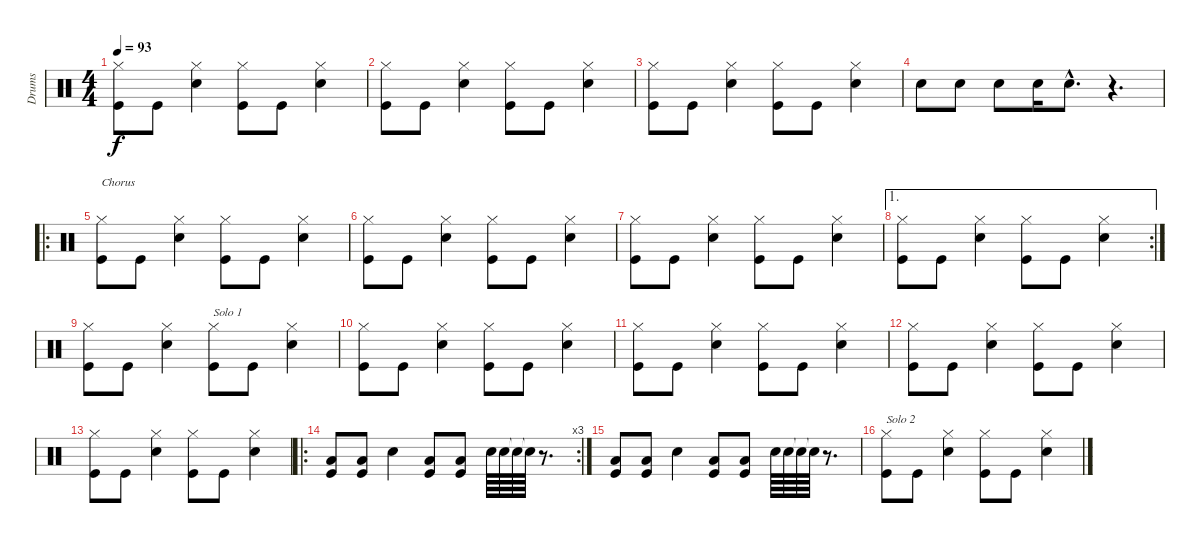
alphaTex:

\track ("Drums" "Drums") {instrument percussion}
\staff {score}
\articulation defaults
\ts (4 4)
\tempo 93
\clef neutral
\ks c
("Hi-Hat (closed)" "Kick (hit)").8{dy f} "Kick (hit)".8 ("Hi-Hat (closed)" "Snare (hit) 2").4 ("Hi-Hat (closed)" "Kick (hit)").8 "Kick (hit)".8 ("Hi-Hat (closed)" "Snare (hit) 2").4 |
("Hi-Hat (closed)" "Kick (hit)").8 "Kick (hit)".8 ("Hi-Hat (closed)" "Snare (hit) 2").4 ("Hi-Hat (closed)" "Kick (hit)").8 "Kick (hit)".8 ("Hi-Hat (closed)" "Snare (hit) 2").4 |
("Hi-Hat (closed)" "Kick (hit)").8 "Kick (hit)".8 ("Hi-Hat (closed)" "Snare (hit) 2").4 ("Hi-Hat (closed)" "Kick (hit)").8 "Kick (hit)".8 ("Hi-Hat (closed)" "Snare (hit) 2").4 |
"Snare (hit) 2".8 "Snare (hit) 2".8 "Snare (hit) 2".8 "Snare (hit) 2".16 "Snare (hit) 2"{hac}.8{d} r.4{d} |
\ro
("Hi-Hat (closed)" "Kick (hit)").8{txt "Chorus"} "Kick (hit)".8 ("Hi-Hat (closed)" "Snare (hit) 2").4 ("Hi-Hat (closed)" "Kick (hit)").8 "Kick (hit)".8 ("Hi-Hat (closed)" "Snare (hit) 2").4 |
("Hi-Hat (closed)" "Kick (hit)").8 "Kick (hit)".8 ("Hi-Hat (closed)" "Snare (hit) 2").4 ("Hi-Hat (closed)" "Kick (hit)").8 "Kick (hit)".8 ("Hi-Hat (closed)" "Snare (hit) 2").4 |
("Hi-Hat (closed)" "Kick (hit)").8 "Kick (hit)".8 ("Hi-Hat (closed)" "Snare (hit) 2").4 ("Hi-Hat (closed)" "Kick (hit)").8 "Kick (hit)".8 ("Hi-Hat (closed)" "Snare (hit) 2").4 |
\ae 1
\rc 2
("Hi-Hat (closed)" "Kick (hit)").8 "Kick (hit)".8 ("Hi-Hat (closed)" "Snare (hit) 2").4 ("Hi-Hat (closed)" "Kick (hit)").8 "Kick (hit)".8 ("Hi-Hat (closed)" "Snare (hit) 2").4 |
("Hi-Hat (closed)" "Kick (hit)").8 "Kick (hit)".8 ("Hi-Hat (closed)" "Snare (hit) 2").4 ("Hi-Hat (closed)" "Kick (hit)").8{txt "Solo 1"} "Kick (hit)".8 ("Hi-Hat (closed)" "Snare (hit) 2").4 |
("Hi-Hat (closed)" "Kick (hit)").8 "Kick (hit)".8 ("Hi-Hat (closed)" "Snare (hit) 2").4 ("Hi-Hat (closed)" "Kick (hit)").8 "Kick (hit)".8 ("Hi-Hat (closed)" "Snare (hit) 2").4 |
("Hi-Hat (closed)" "Kick (hit)").8 "Kick (hit)".8 ("Hi-Hat (closed)" "Snare (hit) 2").4 ("Hi-Hat (closed)" "Kick (hit)").8 "Kick (hit)".8 ("Hi-Hat (closed)" "Snare (hit) 2").4 |
("Hi-Hat (closed)" "Kick (hit)").8 "Kick (hit)".8 ("Hi-Hat (closed)" "Snare (hit) 2").4 ("Hi-Hat (closed)" "Kick (hit)").8 "Kick (hit)".8 ("Hi-Hat (closed)" "Snare (hit) 2").4 |
("Hi-Hat (closed)" "Kick (hit)").8 "Kick (hit)".8 ("Hi-Hat (closed)" "Snare (hit) 2").4 ("Hi-Hat (closed)" "Kick (hit)").8 "Kick (hit)".8 ("Hi-Hat (closed)" "Snare (hit) 2").4 |
\ro
\rc 3
("Kick (hit)" "Low Floor Tom (hit)").8 ("Kick (hit)" "Low Floor Tom (hit)").8 "Snare (hit) 2".4 ("Kick (hit)" "Low Floor Tom (hit)").8 ("Kick (hit)" "Low Floor Tom (hit)").8 "Snare (hit) 2".64 "Snare (hit) 2".64 "Snare (hit) 2"{t}.64 "Snare (hit) 2"{t}.64 r.8{d} |
("Kick (hit)" "Low Floor Tom (hit)").8 ("Kick (hit)" "Low Floor Tom (hit)").8 "Snare (hit) 2".4 ("Kick (hit)" "Low Floor Tom (hit)").8 ("Kick (hit)" "Low Floor Tom (hit)").8 "Snare (hit) 2".64 "Snare (hit) 2".64 "Snare (hit) 2"{t}.64 "Snare (hit) 2"{t}.64 r.8{d} |
("Hi-Hat (closed)" "Kick (hit)").8{txt "Solo 2"} "Kick (hit)".8 ("Hi-Hat (closed)" "Snare (hit) 2").4 ("Hi-Hat (closed)" "Kick (hit)").8 "Kick (hit)".8 ("Hi-Hat (closed)" "Snare (hit) 2").4
